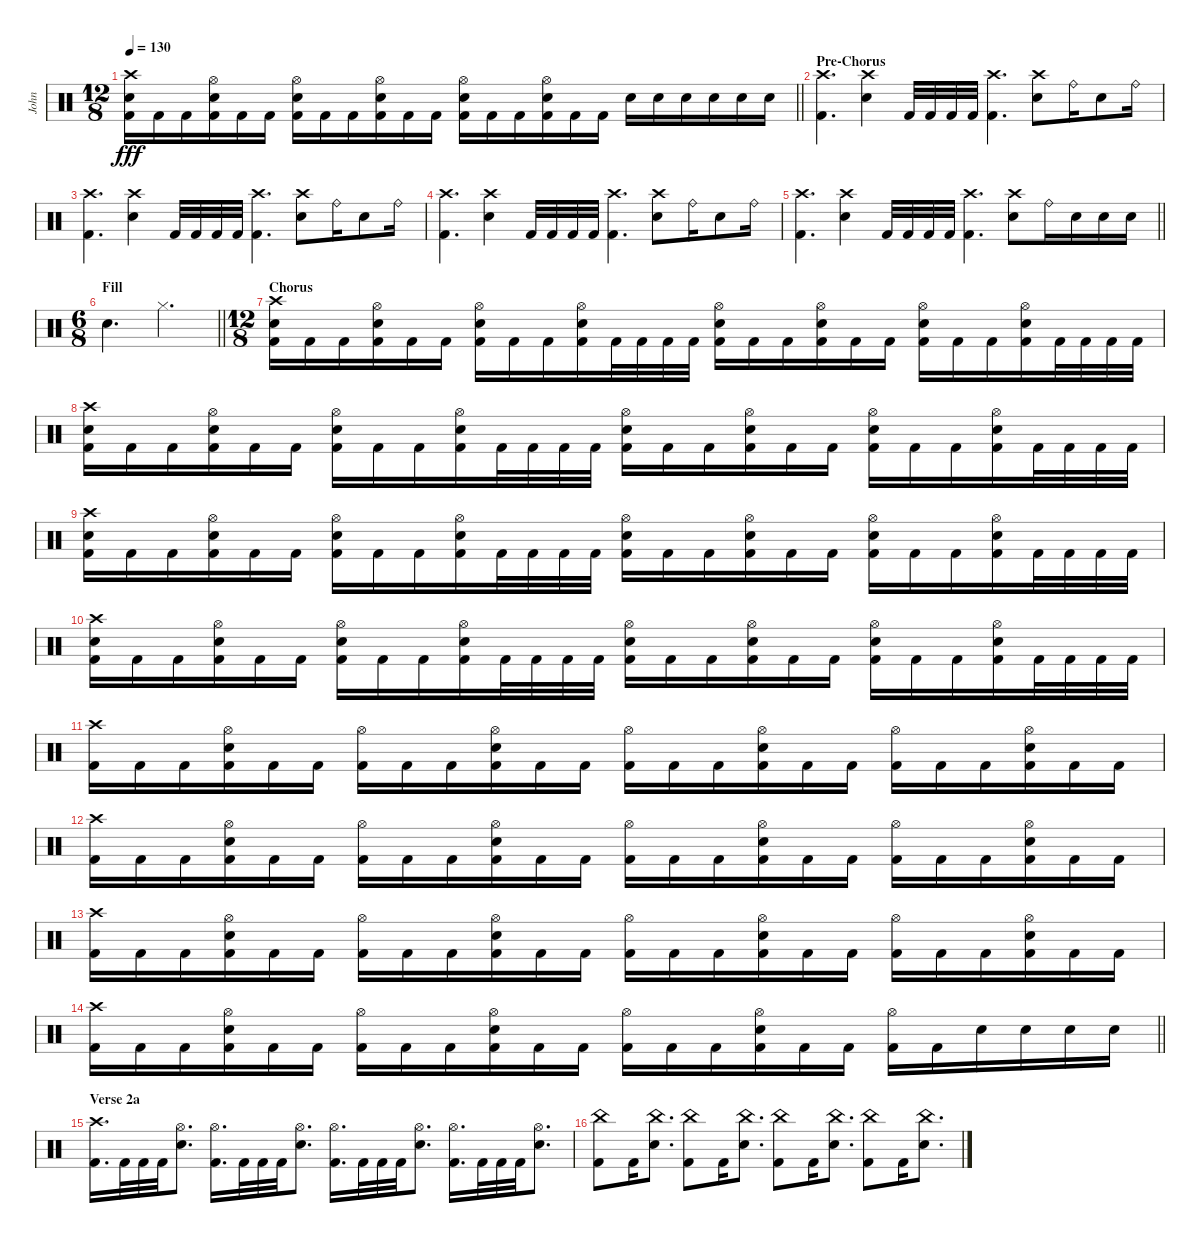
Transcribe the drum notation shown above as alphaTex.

\track ("John" "John") {instrument percussion}
\staff {score}
\articulation defaults
\ts (12 8)
\tempo 130
\clef neutral
\barLineRight lightlight
\ks c
("Crash high (hit)" "Electric Snare (hit)" "Kick (hit) 2").16{dy fff} "Kick (hit) 2".16 "Kick (hit) 2".16 ("Hi-Hat (open)" "Electric Snare (hit)" "Kick (hit) 2").16 "Kick (hit) 2".16 "Kick (hit) 2".16 ("Hi-Hat (open)" "Electric Snare (hit)" "Kick (hit) 2").16 "Kick (hit) 2".16 "Kick (hit) 2".16 ("Hi-Hat (open)" "Electric Snare (hit)" "Kick (hit) 2").16 "Kick (hit) 2".16 "Kick (hit) 2".16 ("Hi-Hat (open)" "Electric Snare (hit)" "Kick (hit) 2").16 "Kick (hit) 2".16 "Kick (hit) 2".16 ("Hi-Hat (open)" "Electric Snare (hit)" "Kick (hit) 2").16 "Kick (hit) 2".16 "Kick (hit) 2".16 "Electric Snare (hit)".16 "Electric Snare (hit)".16 "Electric Snare (hit)".16 "Electric Snare (hit)".16 "Electric Snare (hit)".16 "Electric Snare (hit)".16 |
\section ("" "Pre-Chorus")
("Crash high (hit)" "Kick (hit) 2").4{d} ("Crash high (hit)" "Electric Snare (hit)").4 "Kick (hit) 2".32 "Kick (hit) 2".32 "Kick (hit) 2".32 "Kick (hit) 2".32 ("Crash high (hit)" "Kick (hit) 2").4{d} ("Crash high (hit)" "Electric Snare (hit)").8 "Ride (bell)".16 "Electric Snare (hit)".8 "Ride (bell)".16 |
("Crash high (hit)" "Kick (hit) 2").4{d} ("Crash high (hit)" "Electric Snare (hit)").4 "Kick (hit) 2".32 "Kick (hit) 2".32 "Kick (hit) 2".32 "Kick (hit) 2".32 ("Crash high (hit)" "Kick (hit) 2").4{d} ("Crash high (hit)" "Electric Snare (hit)").8 "Ride (bell)".16 "Electric Snare (hit)".8 "Ride (bell)".16 |
("Crash high (hit)" "Kick (hit) 2").4{d} ("Crash high (hit)" "Electric Snare (hit)").4 "Kick (hit) 2".32 "Kick (hit) 2".32 "Kick (hit) 2".32 "Kick (hit) 2".32 ("Crash high (hit)" "Kick (hit) 2").4{d} ("Crash high (hit)" "Electric Snare (hit)").8 "Ride (bell)".16 "Electric Snare (hit)".8 "Ride (bell)".16 |
\barLineRight lightlight
("Crash high (hit)" "Kick (hit) 2").4{d} ("Crash high (hit)" "Electric Snare (hit)").4 "Kick (hit) 2".32 "Kick (hit) 2".32 "Kick (hit) 2".32 "Kick (hit) 2".32 ("Crash high (hit)" "Kick (hit) 2").4{d} ("Crash high (hit)" "Electric Snare (hit)").8 "Ride (bell)".16 "Electric Snare (hit)".16 "Electric Snare (hit)".16 "Electric Snare (hit)".16 |
\ts (6 8)
\section ("" "Fill")
\barLineRight lightlight "Electric Snare (hit)".4{d} "Hi-Hat (closed)".4{d}
|
\ts (12 8)
\section ("" "Chorus")
("Crash high (hit)" "Electric Snare (hit)" "Kick (hit) 2").16 "Kick (hit) 2".16 "Kick (hit) 2".16 ("Hi-Hat (open)" "Electric Snare (hit)" "Kick (hit) 2").16 "Kick (hit) 2".16 "Kick (hit) 2".16 ("Hi-Hat (open)" "Electric Snare (hit)" "Kick (hit) 2").16 "Kick (hit) 2".16 "Kick (hit) 2".16 ("Hi-Hat (open)" "Electric Snare (hit)" "Kick (hit) 2").16 "Kick (hit) 2".32 "Kick (hit) 2".32 "Kick (hit) 2".32 "Kick (hit) 2".32 ("Hi-Hat (open)" "Electric Snare (hit)" "Kick (hit) 2").16 "Kick (hit) 2".16 "Kick (hit) 2".16 ("Hi-Hat (open)" "Electric Snare (hit)" "Kick (hit) 2").16 "Kick (hit) 2".16 "Kick (hit) 2".16 ("Hi-Hat (open)" "Electric Snare (hit)" "Kick (hit) 2").16 "Kick (hit) 2".16 "Kick (hit) 2".16 ("Hi-Hat (open)" "Electric Snare (hit)" "Kick (hit) 2").16 "Kick (hit) 2".32 "Kick (hit) 2".32 "Kick (hit) 2".32 "Kick (hit) 2".32 |
("Crash high (hit)" "Electric Snare (hit)" "Kick (hit) 2").16 "Kick (hit) 2".16 "Kick (hit) 2".16 ("Hi-Hat (open)" "Electric Snare (hit)" "Kick (hit) 2").16 "Kick (hit) 2".16 "Kick (hit) 2".16 ("Hi-Hat (open)" "Electric Snare (hit)" "Kick (hit) 2").16 "Kick (hit) 2".16 "Kick (hit) 2".16 ("Hi-Hat (open)" "Electric Snare (hit)" "Kick (hit) 2").16 "Kick (hit) 2".32 "Kick (hit) 2".32 "Kick (hit) 2".32 "Kick (hit) 2".32 ("Hi-Hat (open)" "Electric Snare (hit)" "Kick (hit) 2").16 "Kick (hit) 2".16 "Kick (hit) 2".16 ("Hi-Hat (open)" "Electric Snare (hit)" "Kick (hit) 2").16 "Kick (hit) 2".16 "Kick (hit) 2".16 ("Hi-Hat (open)" "Electric Snare (hit)" "Kick (hit) 2").16 "Kick (hit) 2".16 "Kick (hit) 2".16 ("Hi-Hat (open)" "Electric Snare (hit)" "Kick (hit) 2").16 "Kick (hit) 2".32 "Kick (hit) 2".32 "Kick (hit) 2".32 "Kick (hit) 2".32 |
("Crash high (hit)" "Electric Snare (hit)" "Kick (hit) 2").16 "Kick (hit) 2".16 "Kick (hit) 2".16 ("Hi-Hat (open)" "Electric Snare (hit)" "Kick (hit) 2").16 "Kick (hit) 2".16 "Kick (hit) 2".16 ("Hi-Hat (open)" "Electric Snare (hit)" "Kick (hit) 2").16 "Kick (hit) 2".16 "Kick (hit) 2".16 ("Hi-Hat (open)" "Electric Snare (hit)" "Kick (hit) 2").16 "Kick (hit) 2".32 "Kick (hit) 2".32 "Kick (hit) 2".32 "Kick (hit) 2".32 ("Hi-Hat (open)" "Electric Snare (hit)" "Kick (hit) 2").16 "Kick (hit) 2".16 "Kick (hit) 2".16 ("Hi-Hat (open)" "Electric Snare (hit)" "Kick (hit) 2").16 "Kick (hit) 2".16 "Kick (hit) 2".16 ("Hi-Hat (open)" "Electric Snare (hit)" "Kick (hit) 2").16 "Kick (hit) 2".16 "Kick (hit) 2".16 ("Hi-Hat (open)" "Electric Snare (hit)" "Kick (hit) 2").16 "Kick (hit) 2".32 "Kick (hit) 2".32 "Kick (hit) 2".32 "Kick (hit) 2".32 |
("Crash high (hit)" "Electric Snare (hit)" "Kick (hit) 2").16 "Kick (hit) 2".16 "Kick (hit) 2".16 ("Hi-Hat (open)" "Electric Snare (hit)" "Kick (hit) 2").16 "Kick (hit) 2".16 "Kick (hit) 2".16 ("Hi-Hat (open)" "Electric Snare (hit)" "Kick (hit) 2").16 "Kick (hit) 2".16 "Kick (hit) 2".16 ("Hi-Hat (open)" "Electric Snare (hit)" "Kick (hit) 2").16 "Kick (hit) 2".32 "Kick (hit) 2".32 "Kick (hit) 2".32 "Kick (hit) 2".32 ("Hi-Hat (open)" "Electric Snare (hit)" "Kick (hit) 2").16 "Kick (hit) 2".16 "Kick (hit) 2".16 ("Hi-Hat (open)" "Electric Snare (hit)" "Kick (hit) 2").16 "Kick (hit) 2".16 "Kick (hit) 2".16 ("Hi-Hat (open)" "Electric Snare (hit)" "Kick (hit) 2").16 "Kick (hit) 2".16 "Kick (hit) 2".16 ("Hi-Hat (open)" "Electric Snare (hit)" "Kick (hit) 2").16 "Kick (hit) 2".32 "Kick (hit) 2".32 "Kick (hit) 2".32 "Kick (hit) 2".32 |
("Crash high (hit)" "Kick (hit) 2").16 "Kick (hit) 2".16 "Kick (hit) 2".16 ("Hi-Hat (open)" "Electric Snare (hit)" "Kick (hit) 2").16 "Kick (hit) 2".16 "Kick (hit) 2".16 ("Hi-Hat (open)" "Kick (hit) 2").16 "Kick (hit) 2".16 "Kick (hit) 2".16 ("Hi-Hat (open)" "Electric Snare (hit)" "Kick (hit) 2").16 "Kick (hit) 2".16 "Kick (hit) 2".16 ("Hi-Hat (open)" "Kick (hit) 2").16 "Kick (hit) 2".16 "Kick (hit) 2".16 ("Hi-Hat (open)" "Electric Snare (hit)" "Kick (hit) 2").16 "Kick (hit) 2".16 "Kick (hit) 2".16 ("Hi-Hat (open)" "Kick (hit) 2").16 "Kick (hit) 2".16 "Kick (hit) 2".16 ("Hi-Hat (open)" "Electric Snare (hit)" "Kick (hit) 2").16 "Kick (hit) 2".16 "Kick (hit) 2".16 |
("Crash high (hit)" "Kick (hit) 2").16 "Kick (hit) 2".16 "Kick (hit) 2".16 ("Hi-Hat (open)" "Electric Snare (hit)" "Kick (hit) 2").16 "Kick (hit) 2".16 "Kick (hit) 2".16 ("Hi-Hat (open)" "Kick (hit) 2").16 "Kick (hit) 2".16 "Kick (hit) 2".16 ("Hi-Hat (open)" "Electric Snare (hit)" "Kick (hit) 2").16 "Kick (hit) 2".16 "Kick (hit) 2".16 ("Hi-Hat (open)" "Kick (hit) 2").16 "Kick (hit) 2".16 "Kick (hit) 2".16 ("Hi-Hat (open)" "Electric Snare (hit)" "Kick (hit) 2").16 "Kick (hit) 2".16 "Kick (hit) 2".16 ("Hi-Hat (open)" "Kick (hit) 2").16 "Kick (hit) 2".16 "Kick (hit) 2".16 ("Hi-Hat (open)" "Electric Snare (hit)" "Kick (hit) 2").16 "Kick (hit) 2".16 "Kick (hit) 2".16 |
("Crash high (hit)" "Kick (hit) 2").16 "Kick (hit) 2".16 "Kick (hit) 2".16 ("Hi-Hat (open)" "Electric Snare (hit)" "Kick (hit) 2").16 "Kick (hit) 2".16 "Kick (hit) 2".16 ("Hi-Hat (open)" "Kick (hit) 2").16 "Kick (hit) 2".16 "Kick (hit) 2".16 ("Hi-Hat (open)" "Electric Snare (hit)" "Kick (hit) 2").16 "Kick (hit) 2".16 "Kick (hit) 2".16 ("Hi-Hat (open)" "Kick (hit) 2").16 "Kick (hit) 2".16 "Kick (hit) 2".16 ("Hi-Hat (open)" "Electric Snare (hit)" "Kick (hit) 2").16 "Kick (hit) 2".16 "Kick (hit) 2".16 ("Hi-Hat (open)" "Kick (hit) 2").16 "Kick (hit) 2".16 "Kick (hit) 2".16 ("Hi-Hat (open)" "Electric Snare (hit)" "Kick (hit) 2").16 "Kick (hit) 2".16 "Kick (hit) 2".16 |
\barLineRight lightlight
("Crash high (hit)" "Kick (hit) 2").16 "Kick (hit) 2".16 "Kick (hit) 2".16 ("Hi-Hat (open)" "Electric Snare (hit)" "Kick (hit) 2").16 "Kick (hit) 2".16 "Kick (hit) 2".16 ("Hi-Hat (open)" "Kick (hit) 2").16 "Kick (hit) 2".16 "Kick (hit) 2".16 ("Hi-Hat (open)" "Electric Snare (hit)" "Kick (hit) 2").16 "Kick (hit) 2".16 "Kick (hit) 2".16 ("Hi-Hat (open)" "Kick (hit) 2").16 "Kick (hit) 2".16 "Kick (hit) 2".16 ("Hi-Hat (open)" "Electric Snare (hit)" "Kick (hit) 2").16 "Kick (hit) 2".16 "Kick (hit) 2".16 ("Hi-Hat (open)" "Kick (hit) 2").16 "Kick (hit) 2".16 "Electric Snare (hit)".16 "Electric Snare (hit)".16 "Electric Snare (hit)".16 "Electric Snare (hit)".16 |
\section ("" "Verse 2a")
("Crash high (hit)" "Kick (hit) 2").16{d} "Kick (hit) 2".32 "Kick (hit) 2".32 "Kick (hit) 2".32 ("Hi-Hat (open)" "Electric Snare (hit)").8{d} ("Hi-Hat (open)" "Kick (hit) 2").16{d} "Kick (hit) 2".32 "Kick (hit) 2".32 "Kick (hit) 2".32 ("Hi-Hat (open)" "Electric Snare (hit)").8{d} ("Hi-Hat (open)" "Kick (hit) 2").16{d} "Kick (hit) 2".32 "Kick (hit) 2".32 "Kick (hit) 2".32 ("Hi-Hat (open)" "Electric Snare (hit)").8{d} ("Hi-Hat (open)" "Kick (hit) 2").16{d} "Kick (hit) 2".32 "Kick (hit) 2".32 "Kick (hit) 2".32 ("Hi-Hat (open)" "Electric Snare (hit)").8{d} |
("China (hit)" "Kick (hit) 2").8 "Kick (hit) 2".16 ("China (hit)" "Electric Snare (hit)").8{d} ("China (hit)" "Kick (hit) 2").8 "Kick (hit) 2".16 ("China (hit)" "Electric Snare (hit)").8{d} ("China (hit)" "Kick (hit) 2").8 "Kick (hit) 2".16 ("China (hit)" "Electric Snare (hit)").8{d} ("China (hit)" "Kick (hit) 2").8 "Kick (hit) 2".16 ("China (hit)" "Electric Snare (hit)").8{d}
